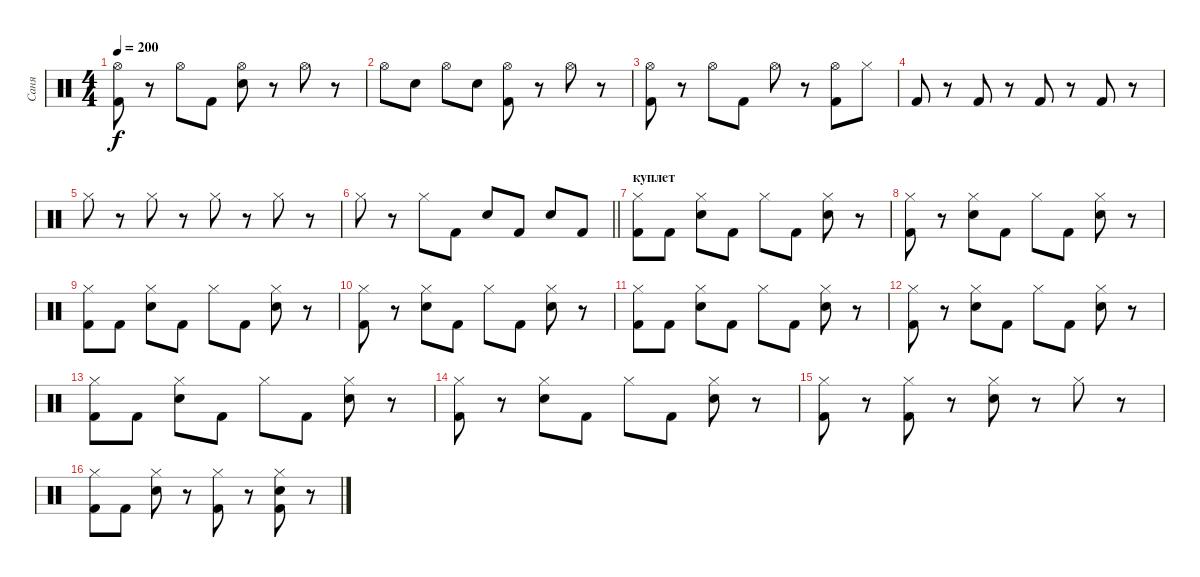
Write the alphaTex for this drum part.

\track ("Саня" "Саня") {instrument percussion}
\staff {score}
\articulation defaults
\ts (4 4)
\tempo 200
\clef neutral
\ks c
("Hi-Hat (open)" "Kick (hit) 2").8{dy f} r.8 "Hi-Hat (open)".8 "Kick (hit) 2".8 ("Hi-Hat (open)" "Electric Snare (hit)").8 r.8 "Hi-Hat (open)".8 r.8 |
"Hi-Hat (open)".8 "Electric Snare (hit)".8 "Hi-Hat (open)".8 "Electric Snare (hit)".8 ("Hi-Hat (open)" "Kick (hit) 2").8 r.8 "Hi-Hat (open)".8 r.8 |
("Hi-Hat (open)" "Kick (hit) 2").8 r.8 "Hi-Hat (open)".8 "Kick (hit) 2".8 "Hi-Hat (open)".8 r.8 ("Hi-Hat (open)" "Kick (hit) 2").8 "Hi-Hat (closed)".8 |
"Kick (hit) 2".8 r.8 "Kick (hit) 2".8 r.8 "Kick (hit) 2".8 r.8 "Kick (hit) 2".8 r.8 |
"Hi-Hat (closed)".8 r.8 "Hi-Hat (closed)".8 r.8 "Hi-Hat (closed)".8 r.8 "Hi-Hat (closed)".8 r.8 |
\barLineRight lightlight "Hi-Hat (closed)".8
r.8 "Hi-Hat (closed)".8 "Kick (hit) 2".8 "Electric Snare (hit)".8 "Kick (hit) 2".8 "Electric Snare (hit)".8 "Kick (hit) 2".8 |
\section ("" "куплет")
("Hi-Hat (closed)" "Kick (hit) 2").8 "Kick (hit) 2".8 ("Hi-Hat (closed)" "Electric Snare (hit)").8 "Kick (hit) 2".8 "Hi-Hat (closed)".8 "Kick (hit) 2".8 ("Hi-Hat (closed)" "Electric Snare (hit)").8 r.8 |
("Hi-Hat (closed)" "Kick (hit) 2").8 r.8 ("Hi-Hat (closed)" "Electric Snare (hit)").8 "Kick (hit) 2".8 "Hi-Hat (closed)".8 "Kick (hit) 2".8 ("Hi-Hat (closed)" "Electric Snare (hit)").8 r.8 |
("Hi-Hat (closed)" "Kick (hit) 2").8 "Kick (hit) 2".8 ("Hi-Hat (closed)" "Electric Snare (hit)").8 "Kick (hit) 2".8 "Hi-Hat (closed)".8 "Kick (hit) 2".8 ("Hi-Hat (closed)" "Electric Snare (hit)").8 r.8 |
("Hi-Hat (closed)" "Kick (hit) 2").8 r.8 ("Hi-Hat (closed)" "Electric Snare (hit)").8 "Kick (hit) 2".8 "Hi-Hat (closed)".8 "Kick (hit) 2".8 ("Hi-Hat (closed)" "Electric Snare (hit)").8 r.8 |
("Hi-Hat (closed)" "Kick (hit) 2").8 "Kick (hit) 2".8 ("Hi-Hat (closed)" "Electric Snare (hit)").8 "Kick (hit) 2".8 "Hi-Hat (closed)".8 "Kick (hit) 2".8 ("Hi-Hat (closed)" "Electric Snare (hit)").8 r.8 |
("Hi-Hat (closed)" "Kick (hit) 2").8 r.8 ("Hi-Hat (closed)" "Electric Snare (hit)").8 "Kick (hit) 2".8 "Hi-Hat (closed)".8 "Kick (hit) 2".8 ("Hi-Hat (closed)" "Electric Snare (hit)").8 r.8 |
("Hi-Hat (closed)" "Kick (hit) 2").8 "Kick (hit) 2".8 ("Hi-Hat (closed)" "Electric Snare (hit)").8 "Kick (hit) 2".8 "Hi-Hat (closed)".8 "Kick (hit) 2".8 ("Hi-Hat (closed)" "Electric Snare (hit)").8 r.8 |
("Hi-Hat (closed)" "Kick (hit) 2").8 r.8 ("Hi-Hat (closed)" "Electric Snare (hit)").8 "Kick (hit) 2".8 "Hi-Hat (closed)".8 "Kick (hit) 2".8 ("Hi-Hat (closed)" "Electric Snare (hit)").8 r.8 |
("Hi-Hat (closed)" "Kick (hit) 2").8 r.8 ("Hi-Hat (closed)" "Kick (hit) 2").8 r.8 ("Hi-Hat (closed)" "Electric Snare (hit)").8 r.8 "Hi-Hat (closed)".8 r.8 |
("Hi-Hat (closed)" "Kick (hit) 2").8 "Kick (hit) 2".8 ("Hi-Hat (closed)" "Electric Snare (hit)").8 r.8 ("Hi-Hat (closed)" "Kick (hit) 2").8 r.8 ("Hi-Hat (closed)" "Electric Snare (hit)" "Kick (hit) 2").8 r.8
